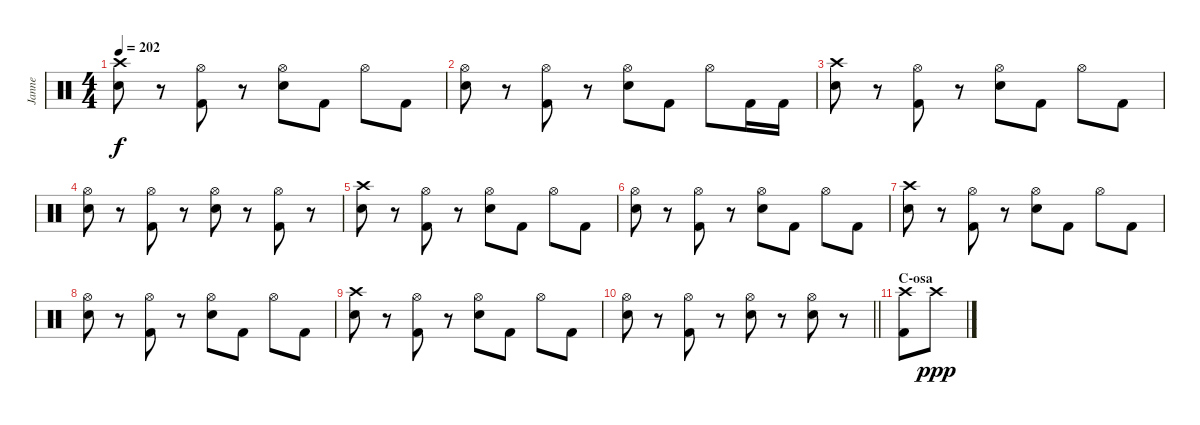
\track ("Janne" "Janne") {instrument percussion}
\staff {score}
\articulation defaults
\ts (4 4)
\tempo 202
\clef neutral
\ks c
("Crash high (hit)" "Electric Snare (hit)").8{dy f} r.8 ("Hi-Hat (open)" "Kick (hit) 2").8 r.8 ("Hi-Hat (open)" "Electric Snare (hit)").8 "Kick (hit) 2".8 "Hi-Hat (open)".8 "Kick (hit) 2".8 |
("Hi-Hat (open)" "Electric Snare (hit)").8 r.8 ("Hi-Hat (open)" "Kick (hit) 2").8 r.8 ("Hi-Hat (open)" "Electric Snare (hit)").8 "Kick (hit) 2".8 "Hi-Hat (open)".8 "Kick (hit) 2".16 "Kick (hit) 2".16 |
("Crash high (hit)" "Electric Snare (hit)").8 r.8 ("Hi-Hat (open)" "Kick (hit) 2").8 r.8 ("Hi-Hat (open)" "Electric Snare (hit)").8 "Kick (hit) 2".8 "Hi-Hat (open)".8 "Kick (hit) 2".8 |
("Hi-Hat (open)" "Electric Snare (hit)").8 r.8 ("Hi-Hat (open)" "Kick (hit) 2").8 r.8 ("Hi-Hat (open)" "Electric Snare (hit)").8 r.8 ("Hi-Hat (open)" "Kick (hit) 2").8 r.8 |
("Crash high (hit)" "Electric Snare (hit)").8 r.8 ("Hi-Hat (open)" "Kick (hit) 2").8 r.8 ("Hi-Hat (open)" "Electric Snare (hit)").8 "Kick (hit) 2".8 "Hi-Hat (open)".8 "Kick (hit) 2".8 |
("Hi-Hat (open)" "Electric Snare (hit)").8 r.8 ("Hi-Hat (open)" "Kick (hit) 2").8 r.8 ("Hi-Hat (open)" "Electric Snare (hit)").8 "Kick (hit) 2".8 "Hi-Hat (open)".8 "Kick (hit) 2".8 |
("Crash high (hit)" "Electric Snare (hit)").8 r.8 ("Hi-Hat (open)" "Kick (hit) 2").8 r.8 ("Hi-Hat (open)" "Electric Snare (hit)").8 "Kick (hit) 2".8 "Hi-Hat (open)".8 "Kick (hit) 2".8 |
("Hi-Hat (open)" "Electric Snare (hit)").8 r.8 ("Hi-Hat (open)" "Kick (hit) 2").8 r.8 ("Hi-Hat (open)" "Electric Snare (hit)").8 "Kick (hit) 2".8 "Hi-Hat (open)".8 "Kick (hit) 2".8 |
("Crash high (hit)" "Electric Snare (hit)").8 r.8 ("Hi-Hat (open)" "Kick (hit) 2").8 r.8 ("Hi-Hat (open)" "Electric Snare (hit)").8 "Kick (hit) 2".8 "Hi-Hat (open)".8 "Kick (hit) 2".8 |
\barLineRight lightlight
("Hi-Hat (open)" "Electric Snare (hit)").8 r.8 ("Hi-Hat (open)" "Kick (hit) 2").8 r.8 ("Hi-Hat (open)" "Electric Snare (hit)").8 r.8 ("Hi-Hat (open)" "Electric Snare (hit)").8 r.8 |
\section ("" "C-osa")
("Crash high (hit)" "Kick (hit) 2").8 "Crash high (hit)".8{dy ppp}
